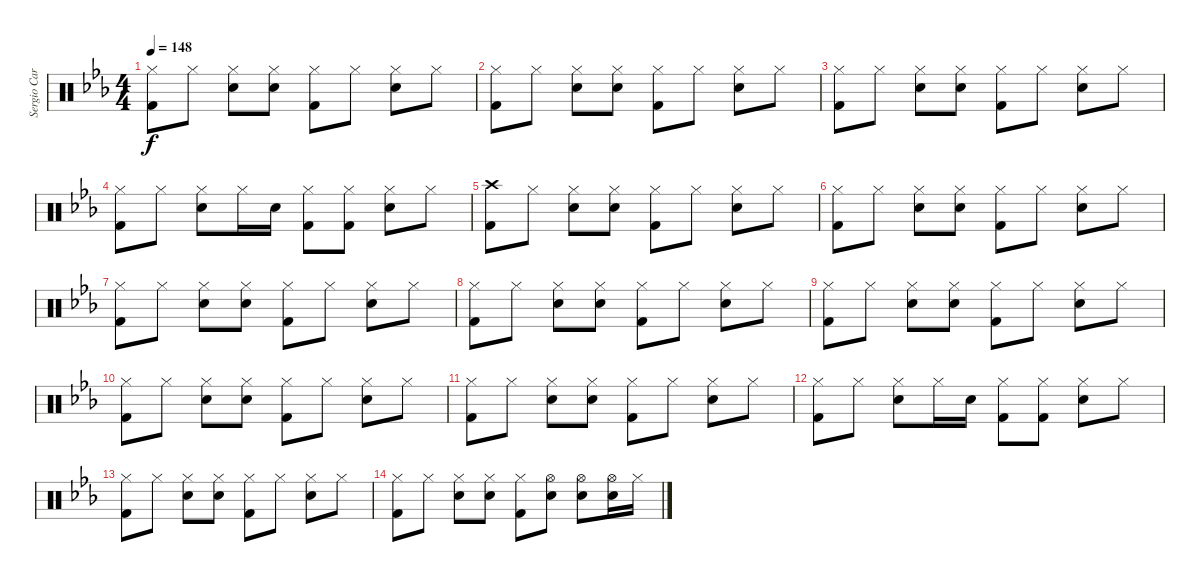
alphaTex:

\track ("Sergio Carnevale [Batteria]" "Sergio Car") {instrument percussion}
\staff {score}
\articulation defaults
\ts (4 4)
\tempo 148
\clef neutral
\ks cminor
("Hi-Hat (closed)" "Kick (hit) 2").8{dy f} "Hi-Hat (closed)".8 ("Hi-Hat (closed)" "Snare (hit) 2").8 ("Hi-Hat (closed)" "Snare (hit) 2").8 ("Hi-Hat (closed)" "Kick (hit) 2").8 "Hi-Hat (closed)".8 ("Hi-Hat (closed)" "Snare (hit) 2").8 "Hi-Hat (closed)".8 |
("Hi-Hat (closed)" "Kick (hit) 2").8 "Hi-Hat (closed)".8 ("Hi-Hat (closed)" "Snare (hit) 2").8 ("Hi-Hat (closed)" "Snare (hit) 2").8 ("Hi-Hat (closed)" "Kick (hit) 2").8 "Hi-Hat (closed)".8 ("Hi-Hat (closed)" "Snare (hit) 2").8 "Hi-Hat (closed)".8 |
("Hi-Hat (closed)" "Kick (hit) 2").8 "Hi-Hat (closed)".8 ("Hi-Hat (closed)" "Snare (hit) 2").8 ("Hi-Hat (closed)" "Snare (hit) 2").8 ("Hi-Hat (closed)" "Kick (hit) 2").8 "Hi-Hat (closed)".8 ("Hi-Hat (closed)" "Snare (hit) 2").8 "Hi-Hat (closed)".8 |
("Hi-Hat (closed)" "Kick (hit) 2").8 "Hi-Hat (closed)".8 ("Hi-Hat (closed)" "Snare (hit) 2").8 "Hi-Hat (closed)".16 "Snare (hit) 2".16 ("Hi-Hat (closed)" "Kick (hit) 2").8 ("Hi-Hat (closed)" "Kick (hit) 2").8 ("Hi-Hat (closed)" "Snare (hit) 2").8 "Hi-Hat (closed)".8 |
("Crash high (hit)" "Kick (hit) 2").8 "Hi-Hat (closed)".8 ("Hi-Hat (closed)" "Snare (hit) 2").8 ("Hi-Hat (closed)" "Snare (hit) 2").8 ("Hi-Hat (closed)" "Kick (hit) 2").8 "Hi-Hat (closed)".8 ("Hi-Hat (closed)" "Snare (hit) 2").8 "Hi-Hat (closed)".8 |
("Hi-Hat (closed)" "Kick (hit) 2").8 "Hi-Hat (closed)".8 ("Hi-Hat (closed)" "Snare (hit) 2").8 ("Hi-Hat (closed)" "Snare (hit) 2").8 ("Hi-Hat (closed)" "Kick (hit) 2").8 "Hi-Hat (closed)".8 ("Hi-Hat (closed)" "Snare (hit) 2").8 "Hi-Hat (closed)".8 |
("Hi-Hat (closed)" "Kick (hit) 2").8 "Hi-Hat (closed)".8 ("Hi-Hat (closed)" "Snare (hit) 2").8 ("Hi-Hat (closed)" "Snare (hit) 2").8 ("Hi-Hat (closed)" "Kick (hit) 2").8 "Hi-Hat (closed)".8 ("Hi-Hat (closed)" "Snare (hit) 2").8 "Hi-Hat (closed)".8 |
("Hi-Hat (closed)" "Kick (hit) 2").8 "Hi-Hat (closed)".8 ("Hi-Hat (closed)" "Snare (hit) 2").8 ("Hi-Hat (closed)" "Snare (hit) 2").8 ("Hi-Hat (closed)" "Kick (hit) 2").8 "Hi-Hat (closed)".8 ("Hi-Hat (closed)" "Snare (hit) 2").8 "Hi-Hat (closed)".8 |
("Hi-Hat (closed)" "Kick (hit) 2").8 "Hi-Hat (closed)".8 ("Hi-Hat (closed)" "Snare (hit) 2").8 ("Hi-Hat (closed)" "Snare (hit) 2").8 ("Hi-Hat (closed)" "Kick (hit) 2").8 "Hi-Hat (closed)".8 ("Hi-Hat (closed)" "Snare (hit) 2").8 "Hi-Hat (closed)".8 |
("Hi-Hat (closed)" "Kick (hit) 2").8 "Hi-Hat (closed)".8 ("Hi-Hat (closed)" "Snare (hit) 2").8 ("Hi-Hat (closed)" "Snare (hit) 2").8 ("Hi-Hat (closed)" "Kick (hit) 2").8 "Hi-Hat (closed)".8 ("Hi-Hat (closed)" "Snare (hit) 2").8 "Hi-Hat (closed)".8 |
("Hi-Hat (closed)" "Kick (hit) 2").8 "Hi-Hat (closed)".8 ("Hi-Hat (closed)" "Snare (hit) 2").8 ("Hi-Hat (closed)" "Snare (hit) 2").8 ("Hi-Hat (closed)" "Kick (hit) 2").8 "Hi-Hat (closed)".8 ("Hi-Hat (closed)" "Snare (hit) 2").8 "Hi-Hat (closed)".8 |
("Hi-Hat (closed)" "Kick (hit) 2").8 "Hi-Hat (closed)".8 ("Hi-Hat (closed)" "Snare (hit) 2").8 "Hi-Hat (closed)".16 "Snare (hit) 2".16 ("Hi-Hat (closed)" "Kick (hit) 2").8 ("Hi-Hat (closed)" "Kick (hit) 2").8 ("Hi-Hat (closed)" "Snare (hit) 2").8 "Hi-Hat (closed)".8 |
("Hi-Hat (closed)" "Kick (hit) 2").8 "Hi-Hat (closed)".8 ("Hi-Hat (closed)" "Snare (hit) 2").8 ("Hi-Hat (closed)" "Snare (hit) 2").8 ("Hi-Hat (closed)" "Kick (hit) 2").8 "Hi-Hat (closed)".8 ("Hi-Hat (closed)" "Snare (hit) 2").8 "Hi-Hat (closed)".8 |
("Hi-Hat (closed)" "Kick (hit) 2").8 "Hi-Hat (closed)".8 ("Hi-Hat (closed)" "Snare (hit) 2").8 ("Hi-Hat (closed)" "Snare (hit) 2").8 ("Hi-Hat (closed)" "Kick (hit) 2").8 ("Hi-Hat (open)" "Snare (hit) 2").8 ("Hi-Hat (open)" "Snare (hit) 2").8 ("Hi-Hat (open)" "Snare (hit) 2").16 "Hi-Hat (closed)".16
